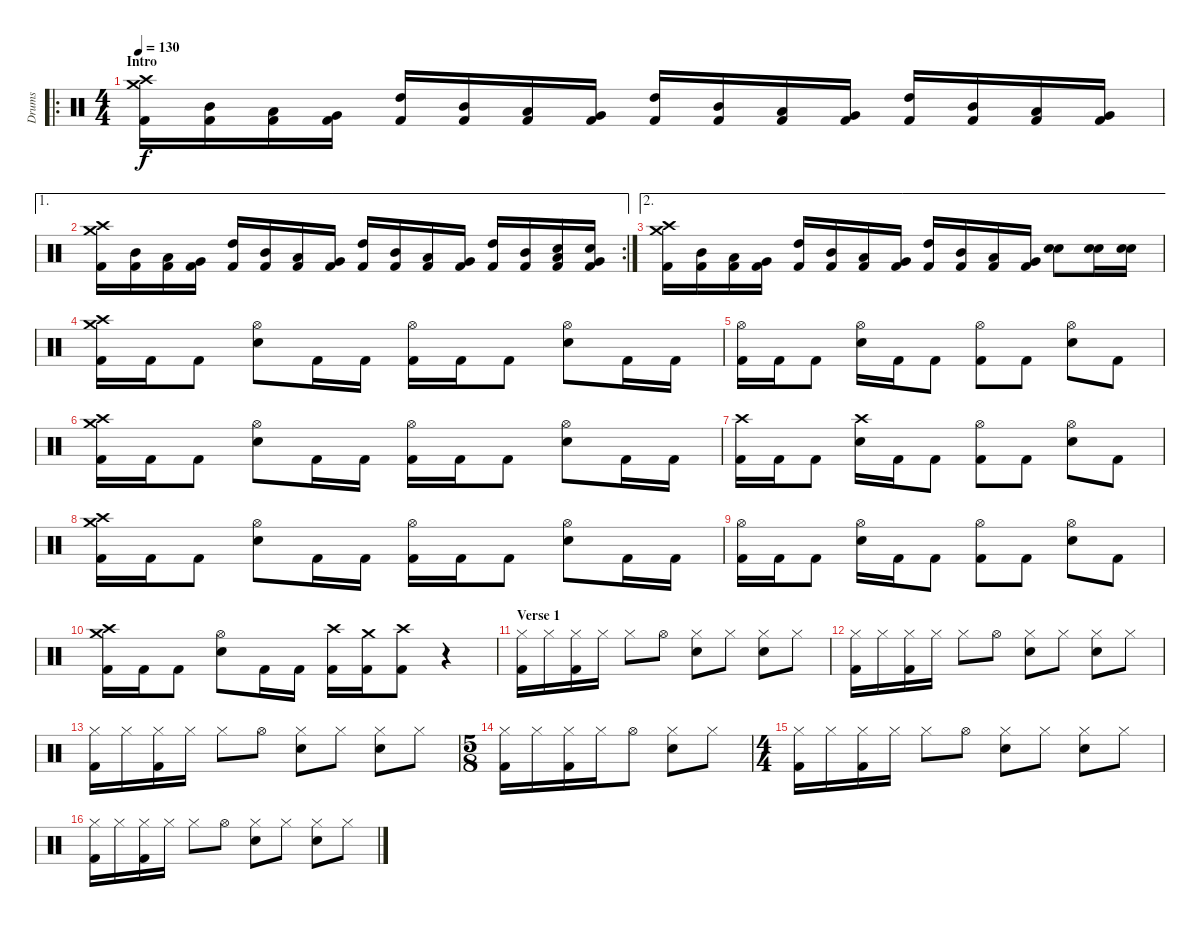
\track ("Drums" "Drums") {instrument percussion}
\staff {score}
\articulation defaults
\ro
\ts (4 4)
\section ("" "Intro")
\tempo 130
\clef neutral
\ks c
("Crash high (hit)" "Crash medium (hit)" "Kick (hit) 2").16{dy f} ("Mid Tom (hit)" "Kick (hit) 2").16 ("Low Tom (hit)" "Kick (hit) 2").16 ("Very Low Tom (hit)" "Kick (hit) 2").16 ("High Tom (hit)" "Kick (hit) 2").16 ("Mid Tom (hit)" "Kick (hit) 2").16 ("Low Tom (hit)" "Kick (hit) 2").16 ("Very Low Tom (hit)" "Kick (hit) 2").16 ("High Tom (hit)" "Kick (hit) 2").16 ("Mid Tom (hit)" "Kick (hit) 2").16 ("Low Tom (hit)" "Kick (hit) 2").16 ("Very Low Tom (hit)" "Kick (hit) 2").16 ("High Tom (hit)" "Kick (hit) 2").16 ("Mid Tom (hit)" "Kick (hit) 2").16 ("Low Tom (hit)" "Kick (hit) 2").16 ("Very Low Tom (hit)" "Kick (hit) 2").16 |
\ae 1
\rc 2
("Crash high (hit)" "Crash medium (hit)" "Kick (hit) 2").16 ("Mid Tom (hit)" "Kick (hit) 2").16 ("Low Tom (hit)" "Kick (hit) 2").16 ("Very Low Tom (hit)" "Kick (hit) 2").16 ("High Tom (hit)" "Kick (hit) 2").16 ("Mid Tom (hit)" "Kick (hit) 2").16 ("Low Tom (hit)" "Kick (hit) 2").16 ("Very Low Tom (hit)" "Kick (hit) 2").16 ("High Tom (hit)" "Kick (hit) 2").16 ("Mid Tom (hit)" "Kick (hit) 2").16 ("Low Tom (hit)" "Kick (hit) 2").16 ("Very Low Tom (hit)" "Kick (hit) 2").16 ("High Tom (hit)" "Kick (hit) 2").16 ("Mid Tom (hit)" "Kick (hit) 2").16 ("Low Tom (hit)" "Electric Snare (hit)" "Kick (hit) 2").16 ("Very Low Tom (hit)" "Electric Snare (hit)" "Kick (hit) 2").16 |
\ae 2
("Crash high (hit)" "Crash medium (hit)" "Kick (hit) 2").16 ("Mid Tom (hit)" "Kick (hit) 2").16 ("Low Tom (hit)" "Kick (hit) 2").16 ("Very Low Tom (hit)" "Kick (hit) 2").16 ("High Tom (hit)" "Kick (hit) 2").16 ("Mid Tom (hit)" "Kick (hit) 2").16 ("Low Tom (hit)" "Kick (hit) 2").16 ("Very Low Tom (hit)" "Kick (hit) 2").16 ("High Tom (hit)" "Kick (hit) 2").16 ("Mid Tom (hit)" "Kick (hit) 2").16 ("Low Tom (hit)" "Kick (hit) 2").16 ("Very Low Tom (hit)" "Kick (hit) 2").16 ("Electric Snare (hit)" "Electric Snare (hit)").8 ("Electric Snare (hit)" "Electric Snare (hit)").16 ("Electric Snare (hit)" "Electric Snare (hit)").16 |
("Crash high (hit)" "Crash medium (hit)" "Kick (hit) 2").16 "Kick (hit) 2".16 "Kick (hit) 2".8 ("Hi-Hat (open)" "Electric Snare (hit)").8 "Kick (hit) 2".16 "Kick (hit) 2".16 ("Hi-Hat (open)" "Kick (hit) 2").16 "Kick (hit) 2".16 "Kick (hit) 2".8 ("Hi-Hat (open)" "Electric Snare (hit)").8 "Kick (hit) 2".16 "Kick (hit) 2".16 |
("Hi-Hat (open)" "Kick (hit) 2").16 "Kick (hit) 2".16 "Kick (hit) 2".8 ("Hi-Hat (open)" "Electric Snare (hit)").16 "Kick (hit) 2".16 "Kick (hit) 2".8 ("Hi-Hat (open)" "Kick (hit) 2").8 "Kick (hit) 2".8 ("Hi-Hat (open)" "Electric Snare (hit)").8 "Kick (hit) 2".8 |
("Crash high (hit)" "Crash medium (hit)" "Kick (hit) 2").16 "Kick (hit) 2".16 "Kick (hit) 2".8 ("Hi-Hat (open)" "Electric Snare (hit)").8 "Kick (hit) 2".16 "Kick (hit) 2".16 ("Hi-Hat (open)" "Kick (hit) 2").16 "Kick (hit) 2".16 "Kick (hit) 2".8 ("Hi-Hat (open)" "Electric Snare (hit)").8 "Kick (hit) 2".16 "Kick (hit) 2".16 |
("Crash high (hit)" "Kick (hit) 2").16 "Kick (hit) 2".16 "Kick (hit) 2".8 ("Crash high (hit)" "Electric Snare (hit)").16 "Kick (hit) 2".16 "Kick (hit) 2".8 ("Hi-Hat (open)" "Kick (hit) 2").8 "Kick (hit) 2".8 ("Hi-Hat (open)" "Electric Snare (hit)").8 "Kick (hit) 2".8 |
("Crash high (hit)" "Crash medium (hit)" "Kick (hit) 2").16 "Kick (hit) 2".16 "Kick (hit) 2".8 ("Hi-Hat (open)" "Electric Snare (hit)").8 "Kick (hit) 2".16 "Kick (hit) 2".16 ("Hi-Hat (open)" "Kick (hit) 2").16 "Kick (hit) 2".16 "Kick (hit) 2".8 ("Hi-Hat (open)" "Electric Snare (hit)").8 "Kick (hit) 2".16 "Kick (hit) 2".16 |
("Hi-Hat (open)" "Kick (hit) 2").16 "Kick (hit) 2".16 "Kick (hit) 2".8 ("Hi-Hat (open)" "Electric Snare (hit)").16 "Kick (hit) 2".16 "Kick (hit) 2".8 ("Hi-Hat (open)" "Kick (hit) 2").8 "Kick (hit) 2".8 ("Hi-Hat (open)" "Electric Snare (hit)").8 "Kick (hit) 2".8 |
("Crash high (hit)" "Crash medium (hit)" "Kick (hit) 2").16 "Kick (hit) 2".16 "Kick (hit) 2".8 ("Hi-Hat (open)" "Electric Snare (hit)").8 "Kick (hit) 2".16 "Kick (hit) 2".16 ("Crash high (hit)" "Kick (hit) 2").16 ("Crash medium (hit)" "Kick (hit) 2").16 ("Crash high (hit)" "Kick (hit) 2").8 r.4 |
\section ("" "Verse 1")
("Hi-Hat (closed)" "Kick (hit) 2").16 "Hi-Hat (closed)".16 ("Hi-Hat (closed)" "Kick (hit) 2").16 "Hi-Hat (closed)".16 "Hi-Hat (closed)".8 "Hi-Hat (open)".8 ("Hi-Hat (closed)" "Electric Snare (hit)").8 "Hi-Hat (closed)".8 ("Hi-Hat (closed)" "Electric Snare (hit)").8 "Hi-Hat (closed)".8 |
("Hi-Hat (closed)" "Kick (hit) 2").16 "Hi-Hat (closed)".16 ("Hi-Hat (closed)" "Kick (hit) 2").16 "Hi-Hat (closed)".16 "Hi-Hat (closed)".8 "Hi-Hat (open)".8 ("Hi-Hat (closed)" "Electric Snare (hit)").8 "Hi-Hat (closed)".8 ("Hi-Hat (closed)" "Electric Snare (hit)").8 "Hi-Hat (closed)".8 |
("Hi-Hat (closed)" "Kick (hit) 2").16 "Hi-Hat (closed)".16 ("Hi-Hat (closed)" "Kick (hit) 2").16 "Hi-Hat (closed)".16 "Hi-Hat (closed)".8 "Hi-Hat (open)".8 ("Hi-Hat (closed)" "Electric Snare (hit)").8 "Hi-Hat (closed)".8 ("Hi-Hat (closed)" "Electric Snare (hit)").8 "Hi-Hat (closed)".8 |
\ts (5 8)
("Hi-Hat (closed)" "Kick (hit) 2").16 "Hi-Hat (closed)".16 ("Hi-Hat (closed)" "Kick (hit) 2").16 "Hi-Hat (closed)".16 "Hi-Hat (open)".8 ("Hi-Hat (closed)" "Electric Snare (hit)").8 "Hi-Hat (closed)".8 |
\ts (4 4)
("Hi-Hat (closed)" "Kick (hit) 2").16 "Hi-Hat (closed)".16 ("Hi-Hat (closed)" "Kick (hit) 2").16 "Hi-Hat (closed)".16 "Hi-Hat (closed)".8 "Hi-Hat (open)".8 ("Hi-Hat (closed)" "Electric Snare (hit)").8 "Hi-Hat (closed)".8 ("Hi-Hat (closed)" "Electric Snare (hit)").8 "Hi-Hat (closed)".8 |
("Hi-Hat (closed)" "Kick (hit) 2").16 "Hi-Hat (closed)".16 ("Hi-Hat (closed)" "Kick (hit) 2").16 "Hi-Hat (closed)".16 "Hi-Hat (closed)".8 "Hi-Hat (open)".8 ("Hi-Hat (closed)" "Electric Snare (hit)").8 "Hi-Hat (closed)".8 ("Hi-Hat (closed)" "Electric Snare (hit)").8 "Hi-Hat (closed)".8
